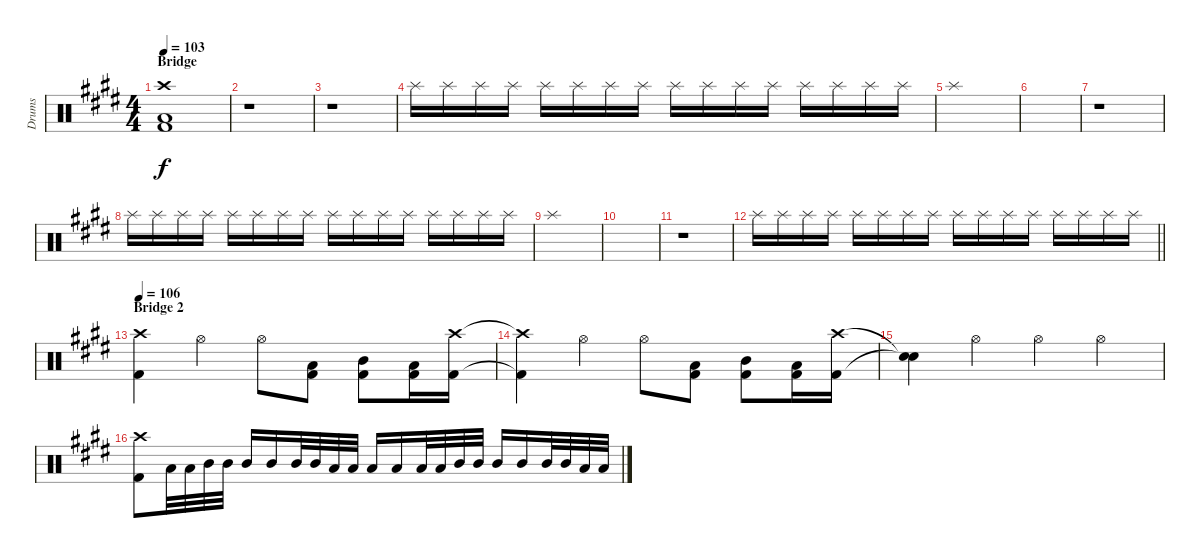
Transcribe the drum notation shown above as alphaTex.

\track ("Drums" "Drums") {instrument percussion}
\staff {score}
\articulation defaults
\ts (4 4)
\section ("" "Bridge")
\tempo 103
\clef neutral
\ks c#minor
("Crash high (hit)" "Low Floor Tom (hit)" "Kick (hit) 2").1{dy f} |
r.1 |
r.1{volume 0} |
"Splash (hit)".16{volume 13} "Splash (hit)".16 "Splash (hit)".16 "Splash (hit)".16 "Splash (hit)".16 "Splash (hit)".16 "Splash (hit)".16 "Splash (hit)".16 "Splash (hit)".16 "Splash (hit)".16 "Splash (hit)".16 "Splash (hit)".16 "Splash (hit)".16 "Splash (hit)".16 "Splash (hit)".16 "Splash (hit)".16 |
"Splash (hit)".1 |
|
r.1{volume 0} |
"Splash (hit)".16{volume 13} "Splash (hit)".16 "Splash (hit)".16 "Splash (hit)".16 "Splash (hit)".16 "Splash (hit)".16 "Splash (hit)".16 "Splash (hit)".16 "Splash (hit)".16 "Splash (hit)".16 "Splash (hit)".16 "Splash (hit)".16 "Splash (hit)".16 "Splash (hit)".16 "Splash (hit)".16 "Splash (hit)".16 |
"Splash (hit)".1 |
|
r.1{volume 0} |
\barLineRight lightlight "Splash (hit)".16{volume 13} "Splash (hit)".16 "Splash (hit)".16 "Splash (hit)".16 "Splash (hit)".16 "Splash (hit)".16 "Splash (hit)".16 "Splash (hit)".16 "Splash (hit)".16 "Splash (hit)".16 "Splash (hit)".16 "Splash (hit)".16 "Splash (hit)".16 "Splash (hit)".16 "Splash (hit)".16 "Splash (hit)".16
|
\section ("" "Bridge 2")
\tempo 106
("Crash high (hit)" "Kick (hit) 2").4 "Hi-Hat (open)".4 "Hi-Hat (open)".8 ("Low Tom (hit)" "Kick (hit) 2").8 ("Mid Tom (hit)" "Kick (hit) 2").8 ("Low Tom (hit)" "Kick (hit) 2").16 ("Crash high (hit)" "Kick (hit) 2").16 |
("Crash high (hit)"{t} "Kick (hit) 2"{t}).4 "Hi-Hat (open)".4 "Hi-Hat (open)".8 ("Low Tom (hit)" "Kick (hit) 2").8 ("Mid Tom (hit)" "Kick (hit) 2").8 ("Low Tom (hit)" "Kick (hit) 2").16 ("Crash high (hit)" "Kick (hit) 2").16 |
("Snare (hit)"{t} "Snare (hit)"{t}).4 "Hi-Hat (open)".4 "Hi-Hat (open)".4 "Hi-Hat (open)".4 |
("Crash high (hit)" "Kick (hit) 2").8 "Low Tom (hit)".32 "Low Tom (hit)".32 "Mid Tom (hit)".32 "Mid Tom (hit)".32 "Mid Tom (hit)".16 "Mid Tom (hit)".16 "Mid Tom (hit)".32 "Mid Tom (hit)".32 "Low Tom (hit)".32 "Low Tom (hit)".32 "Low Tom (hit)".16 "Low Tom (hit)".16 "Low Tom (hit)".32 "Low Tom (hit)".32 "Mid Tom (hit)".32 "Mid Tom (hit)".32 "Mid Tom (hit)".16 "Mid Tom (hit)".16 "Mid Tom (hit)".32 "Mid Tom (hit)".32 "Low Tom (hit)".32 "Low Tom (hit)".32
